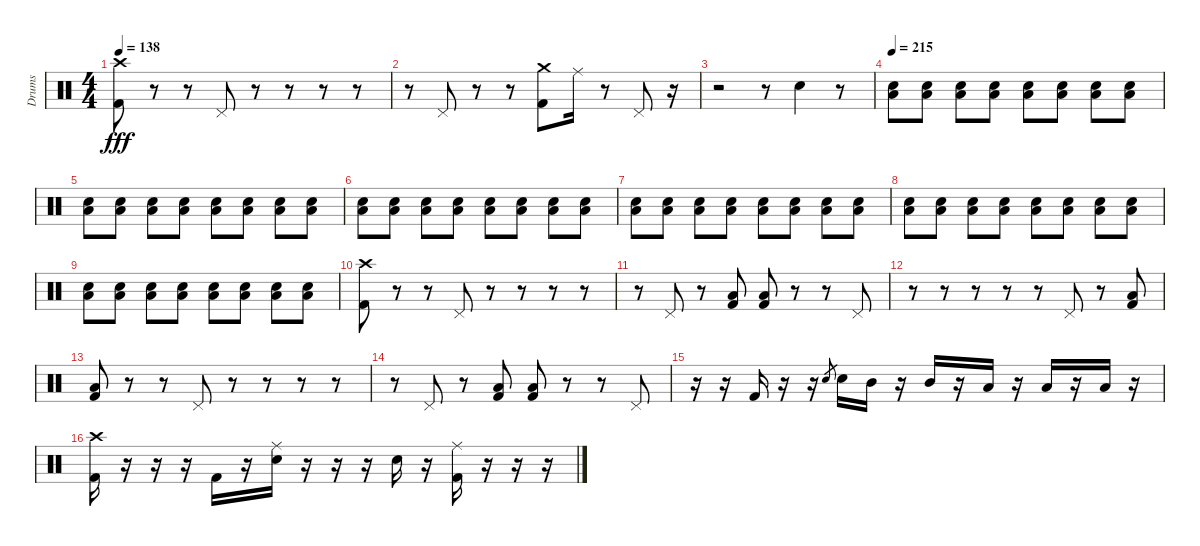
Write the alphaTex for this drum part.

\track ("Drums" "Drums") {instrument percussion}
\staff {score}
\articulation defaults
\ts (4 4)
\tempo 138
\clef neutral
\ks c
("Crash high (hit)" "Kick (hit) 2").8{dy fff} r.8 r.8 "Pedal Hi-Hat (hit)".8 r.8 r.8 r.8 r.8 |
r.8 "Pedal Hi-Hat (hit)".8 r.8 r.8 ("Crash medium (hit)" "Kick (hit) 2").8 "Ride (middle)".16 r.8 "Pedal Hi-Hat (hit)".8 r.16 |
r.2 r.8 "Snare (hit) 2".4 r.8 |
\tempo 215
("Snare (hit) 2" "Low Tom (hit)").8 ("Snare (hit) 2" "Low Tom (hit)").8 ("Snare (hit) 2" "Low Tom (hit)").8 ("Snare (hit) 2" "Low Tom (hit)").8 ("Snare (hit) 2" "Low Tom (hit)").8 ("Snare (hit) 2" "Low Tom (hit)").8 ("Snare (hit) 2" "Low Tom (hit)").8 ("Snare (hit) 2" "Low Tom (hit)").8 |
("Snare (hit) 2" "Low Tom (hit)").8 ("Snare (hit) 2" "Low Tom (hit)").8 ("Snare (hit) 2" "Low Tom (hit)").8 ("Snare (hit) 2" "Low Tom (hit)").8 ("Snare (hit) 2" "Low Tom (hit)").8 ("Snare (hit) 2" "Low Tom (hit)").8 ("Snare (hit) 2" "Low Tom (hit)").8 ("Snare (hit) 2" "Low Tom (hit)").8 |
("Snare (hit) 2" "Low Tom (hit)").8 ("Snare (hit) 2" "Low Tom (hit)").8 ("Snare (hit) 2" "Low Tom (hit)").8 ("Snare (hit) 2" "Low Tom (hit)").8 ("Snare (hit) 2" "Low Tom (hit)").8 ("Snare (hit) 2" "Low Tom (hit)").8 ("Snare (hit) 2" "Low Tom (hit)").8 ("Snare (hit) 2" "Low Tom (hit)").8 |
("Snare (hit) 2" "Low Tom (hit)").8 ("Snare (hit) 2" "Low Tom (hit)").8 ("Snare (hit) 2" "Low Tom (hit)").8 ("Snare (hit) 2" "Low Tom (hit)").8 ("Snare (hit) 2" "Low Tom (hit)").8 ("Snare (hit) 2" "Low Tom (hit)").8 ("Snare (hit) 2" "Low Tom (hit)").8 ("Snare (hit) 2" "Low Tom (hit)").8 |
("Snare (hit) 2" "Low Tom (hit)").8 ("Snare (hit) 2" "Low Tom (hit)").8 ("Snare (hit) 2" "Low Tom (hit)").8 ("Snare (hit) 2" "Low Tom (hit)").8 ("Snare (hit) 2" "Low Tom (hit)").8 ("Snare (hit) 2" "Low Tom (hit)").8 ("Snare (hit) 2" "Low Tom (hit)").8 ("Snare (hit) 2" "Low Tom (hit)").8 |
("Snare (hit) 2" "Low Tom (hit)").8 ("Snare (hit) 2" "Low Tom (hit)").8 ("Snare (hit) 2" "Low Tom (hit)").8 ("Snare (hit) 2" "Low Tom (hit)").8 ("Snare (hit) 2" "Low Tom (hit)").8 ("Snare (hit) 2" "Low Tom (hit)").8 ("Snare (hit) 2" "Low Tom (hit)").8 ("Snare (hit) 2" "Low Tom (hit)").8 |
("Crash high (hit)" "Kick (hit) 2").8 r.8 r.8 "Pedal Hi-Hat (hit)".8 r.8 r.8 r.8 r.8 |
r.8 "Pedal Hi-Hat (hit)".8 r.8 ("Kick (hit) 2" "Low Tom (hit)").8 ("Kick (hit) 2" "Low Tom (hit)").8 r.8 r.8 "Pedal Hi-Hat (hit)".8 |
r.8 r.8 r.8 r.8 r.8 "Pedal Hi-Hat (hit)".8 r.8 ("Kick (hit) 2" "Low Tom (hit)").8 |
("Kick (hit) 2" "Low Tom (hit)").8 r.8 r.8 "Pedal Hi-Hat (hit)".8 r.8 r.8 r.8 r.8 |
r.8 "Pedal Hi-Hat (hit)".8 r.8 ("Kick (hit) 2" "Low Tom (hit)").8 ("Kick (hit) 2" "Low Tom (hit)").8 r.8 r.8 "Pedal Hi-Hat (hit)".8 |
r.16 r.16 "Kick (hit) 2".16 r.16 r.16 "Snare (hit) 2".8{gr} "Snare (hit) 2".16 "Mid Tom (hit)".16 r.16 "Mid Tom (hit)".16 r.16 "Low Tom (hit)".16 r.16 "Low Tom (hit)".16 r.16 "Low Tom (hit)".16 r.16 |
("Crash high (hit)" "Kick (hit) 2").16 r.16 r.16 r.16 "Kick (hit) 2".16 r.16 ("Ride (middle)" "Snare (hit) 2").16 r.16 r.16 r.16 "Snare (hit) 2".16 r.16 ("Ride (middle)" "Kick (hit) 2").16 r.16 r.16 r.16
